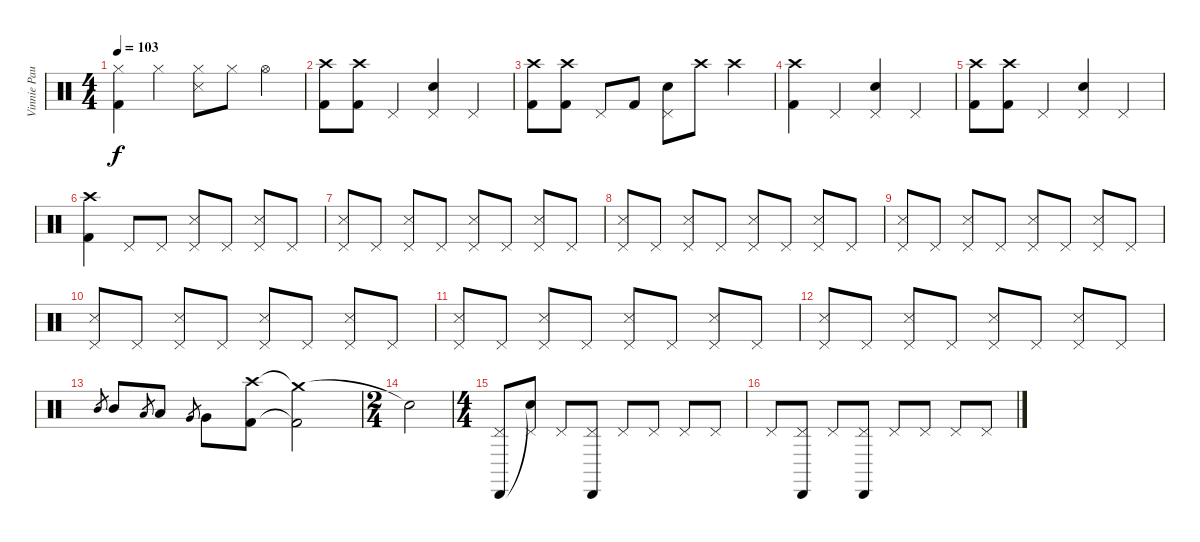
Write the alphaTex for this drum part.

\track ("Vinnie Paul" "Vinnie Pau") {instrument percussion}
\staff {score}
\articulation defaults
\ts (4 4)
\tempo 103
\clef neutral
\ks c
("Hi-Hat (closed)" "Kick (hit) 2").4{dy f} "Hi-Hat (closed)".4 ("Hi-Hat (closed)" "Snare (side stick) 3").8 "Hi-Hat (closed)".8 "Hi-Hat (open)".4 |
("Crash high (hit)" "Kick (hit) 2").8 ("Crash high (hit)" "Kick (hit) 2").8 "Pedal Hi-Hat (hit)".4 ("Pedal Hi-Hat (hit)" "Electric Snare (hit)").4 "Pedal Hi-Hat (hit)".4 |
("Crash high (hit)" "Kick (hit) 2").8 ("Crash high (hit)" "Kick (hit) 2").8 "Pedal Hi-Hat (hit)".8 "Kick (hit) 2".8 ("Pedal Hi-Hat (hit)" "Electric Snare (hit)").8 "Crash high (hit)".8 "Crash high (hit)".4 |
("Crash high (hit)" "Kick (hit) 2").4 "Pedal Hi-Hat (hit)".4 ("Pedal Hi-Hat (hit)" "Electric Snare (hit)").4 "Pedal Hi-Hat (hit)".4 |
("Crash high (hit)" "Kick (hit) 2").8 ("Crash high (hit)" "Kick (hit) 2").8 "Pedal Hi-Hat (hit)".4 ("Pedal Hi-Hat (hit)" "Electric Snare (hit)").4 "Pedal Hi-Hat (hit)".4 |
("Crash high (hit)" "Kick (hit) 2").4 "Pedal Hi-Hat (hit)".8 "Pedal Hi-Hat (hit)".8 ("Pedal Hi-Hat (hit)" "Snare (side stick) 3").8 "Pedal Hi-Hat (hit)".8 ("Pedal Hi-Hat (hit)" "Snare (side stick) 3").8 "Pedal Hi-Hat (hit)".8 |
("Pedal Hi-Hat (hit)" "Snare (side stick) 3").8 "Pedal Hi-Hat (hit)".8 ("Pedal Hi-Hat (hit)" "Snare (side stick) 3").8 "Pedal Hi-Hat (hit)".8 ("Pedal Hi-Hat (hit)" "Snare (side stick) 3").8 "Pedal Hi-Hat (hit)".8 ("Pedal Hi-Hat (hit)" "Snare (side stick) 3").8 "Pedal Hi-Hat (hit)".8 |
("Pedal Hi-Hat (hit)" "Snare (side stick) 3").8 "Pedal Hi-Hat (hit)".8 ("Pedal Hi-Hat (hit)" "Snare (side stick) 3").8 "Pedal Hi-Hat (hit)".8 ("Pedal Hi-Hat (hit)" "Snare (side stick) 3").8 "Pedal Hi-Hat (hit)".8 ("Pedal Hi-Hat (hit)" "Snare (side stick) 3").8 "Pedal Hi-Hat (hit)".8 |
("Pedal Hi-Hat (hit)" "Snare (side stick) 3").8 "Pedal Hi-Hat (hit)".8 ("Pedal Hi-Hat (hit)" "Snare (side stick) 3").8 "Pedal Hi-Hat (hit)".8 ("Pedal Hi-Hat (hit)" "Snare (side stick) 3").8 "Pedal Hi-Hat (hit)".8 ("Pedal Hi-Hat (hit)" "Snare (side stick) 3").8 "Pedal Hi-Hat (hit)".8 |
("Pedal Hi-Hat (hit)" "Snare (side stick) 3").8 "Pedal Hi-Hat (hit)".8 ("Pedal Hi-Hat (hit)" "Snare (side stick) 3").8 "Pedal Hi-Hat (hit)".8 ("Pedal Hi-Hat (hit)" "Snare (side stick) 3").8 "Pedal Hi-Hat (hit)".8 ("Pedal Hi-Hat (hit)" "Snare (side stick) 3").8 "Pedal Hi-Hat (hit)".8 |
("Pedal Hi-Hat (hit)" "Snare (side stick) 3").8 "Pedal Hi-Hat (hit)".8 ("Pedal Hi-Hat (hit)" "Snare (side stick) 3").8 "Pedal Hi-Hat (hit)".8 ("Pedal Hi-Hat (hit)" "Snare (side stick) 3").8 "Pedal Hi-Hat (hit)".8 ("Pedal Hi-Hat (hit)" "Snare (side stick) 3").8 "Pedal Hi-Hat (hit)".8 |
("Pedal Hi-Hat (hit)" "Snare (side stick) 3").8 "Pedal Hi-Hat (hit)".8 ("Pedal Hi-Hat (hit)" "Snare (side stick) 3").8 "Pedal Hi-Hat (hit)".8 ("Pedal Hi-Hat (hit)" "Snare (side stick) 3").8 "Pedal Hi-Hat (hit)".8 ("Pedal Hi-Hat (hit)" "Snare (side stick) 3").8 "Pedal Hi-Hat (hit)".8 |
"Mid Tom (hit)".8{gr} "Mid Tom (hit)".8 "Low Tom (hit)".8{gr} "Low Tom (hit)".8 "Very Low Tom (hit)".8{gr} "Very Low Tom (hit)".8 ("Crash high (hit)" "Kick (hit) 2").8 ("Crash medium (hit)"{t} "Kick (hit) 2"{t}).2 |
\ts (2 4)
"Snare (hit)"{t}.2 |
\ts (4 4)
("Pedal Hi-Hat (hit)" "Cabasa (hit)").8 ("Pedal Hi-Hat (hit)" "Snare (hit)"{t}).8 "Pedal Hi-Hat (hit)".8 ("Pedal Hi-Hat (hit)" "Cabasa (hit)").8 "Pedal Hi-Hat (hit)".8 "Pedal Hi-Hat (hit)".8 "Pedal Hi-Hat (hit)".8 "Pedal Hi-Hat (hit)".8 |
"Pedal Hi-Hat (hit)".8 ("Pedal Hi-Hat (hit)" "Cabasa (hit)").8 "Pedal Hi-Hat (hit)".8 ("Pedal Hi-Hat (hit)" "Cabasa (hit)").8 "Pedal Hi-Hat (hit)".8 "Pedal Hi-Hat (hit)".8 "Pedal Hi-Hat (hit)".8 "Pedal Hi-Hat (hit)".8
